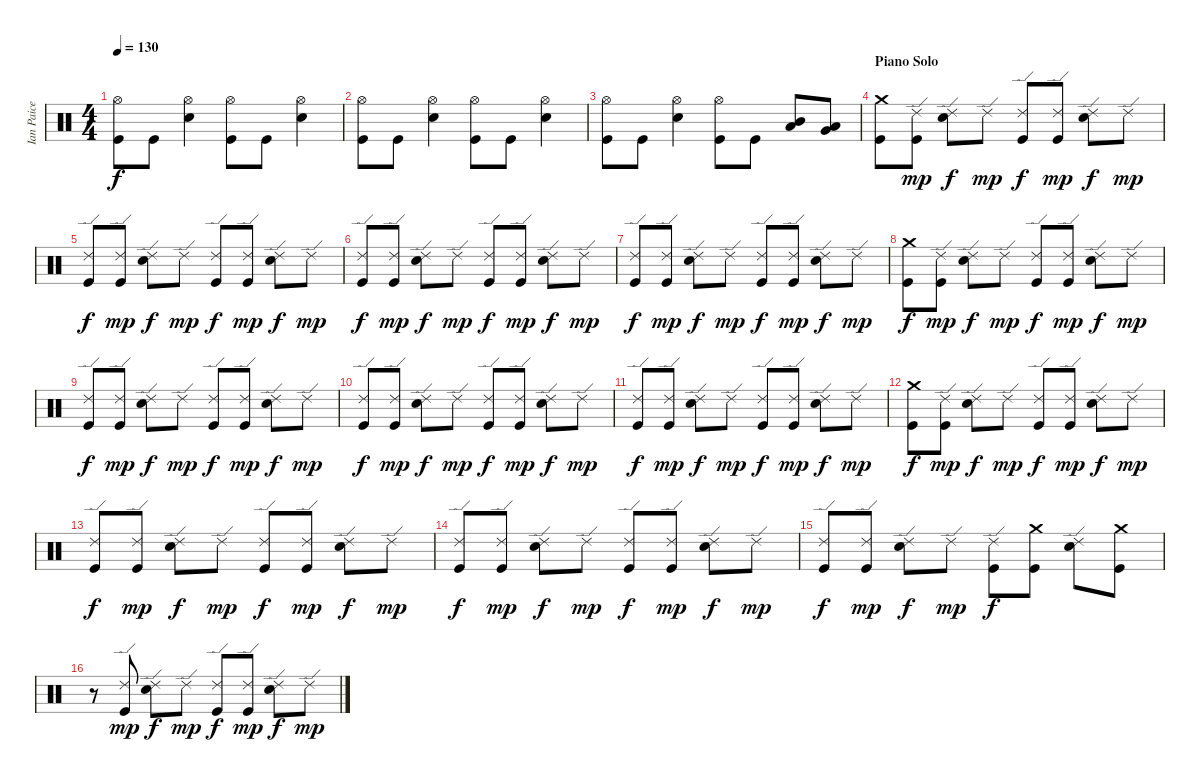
\track ("Ian Paice - Drums" "Ian Paice ") {instrument percussion}
\staff {score}
\articulation defaults
\ts (4 4)
\tempo 130
\clef neutral
\ks c
("Hi-Hat (open)" "Kick (hit)").8{dy f} "Kick (hit)".8 ("Hi-Hat (open)" "Snare (hit) 2").4 ("Hi-Hat (open)" "Kick (hit)").8 "Kick (hit)".8 ("Hi-Hat (open)" "Snare (hit) 2").4 |
("Hi-Hat (open)" "Kick (hit)").8 "Kick (hit)".8 ("Hi-Hat (open)" "Snare (hit) 2").4 ("Hi-Hat (open)" "Kick (hit)").8 "Kick (hit)".8 ("Hi-Hat (open)" "Snare (hit) 2").4 |
("Hi-Hat (open)" "Kick (hit)").8 "Kick (hit)".8 ("Hi-Hat (open)" "Snare (hit) 2").4 ("Hi-Hat (open)" "Kick (hit)").8 "Kick (hit)".8 ("Mid Tom (hit)" "Low Tom (hit)").8 ("Low Tom (hit)" "Very Low Tom (hit)").8 |
\section ("" "Piano Solo")
("Crash medium (hit)" "Kick (hit)").8 ("Ride (edge) 2" "Kick (hit)").8{dy mp} ("Ride (edge) 2" "Snare (hit) 2").8{dy f} "Ride (edge) 2".8{dy mp} ("Ride (edge) 2" "Kick (hit)").8{dy f} ("Ride (edge) 2" "Kick (hit)").8{dy mp} ("Ride (edge) 2" "Snare (hit) 2").8{dy f} "Ride (edge) 2".8{dy mp} |
("Ride (edge) 2" "Kick (hit)").8{dy f} ("Ride (edge) 2" "Kick (hit)").8{dy mp} ("Ride (edge) 2" "Snare (hit) 2").8{dy f} "Ride (edge) 2".8{dy mp} ("Ride (edge) 2" "Kick (hit)").8{dy f} ("Ride (edge) 2" "Kick (hit)").8{dy mp} ("Ride (edge) 2" "Snare (hit) 2").8{dy f} "Ride (edge) 2".8{dy mp} |
("Ride (edge) 2" "Kick (hit)").8{dy f} ("Ride (edge) 2" "Kick (hit)").8{dy mp} ("Ride (edge) 2" "Snare (hit) 2").8{dy f} "Ride (edge) 2".8{dy mp} ("Ride (edge) 2" "Kick (hit)").8{dy f} ("Ride (edge) 2" "Kick (hit)").8{dy mp} ("Ride (edge) 2" "Snare (hit) 2").8{dy f} "Ride (edge) 2".8{dy mp} |
("Ride (edge) 2" "Kick (hit)").8{dy f} ("Ride (edge) 2" "Kick (hit)").8{dy mp} ("Ride (edge) 2" "Snare (hit) 2").8{dy f} "Ride (edge) 2".8{dy mp} ("Ride (edge) 2" "Kick (hit)").8{dy f} ("Ride (edge) 2" "Kick (hit)").8{dy mp} ("Ride (edge) 2" "Snare (hit) 2").8{dy f} "Ride (edge) 2".8{dy mp} |
("Crash medium (hit)" "Kick (hit)").8{dy f} ("Ride (edge) 2" "Kick (hit)").8{dy mp} ("Ride (edge) 2" "Snare (hit) 2").8{dy f} "Ride (edge) 2".8{dy mp} ("Ride (edge) 2" "Kick (hit)").8{dy f} ("Ride (edge) 2" "Kick (hit)").8{dy mp} ("Ride (edge) 2" "Snare (hit) 2").8{dy f} "Ride (edge) 2".8{dy mp} |
("Ride (edge) 2" "Kick (hit)").8{dy f} ("Ride (edge) 2" "Kick (hit)").8{dy mp} ("Ride (edge) 2" "Snare (hit) 2").8{dy f} "Ride (edge) 2".8{dy mp} ("Ride (edge) 2" "Kick (hit)").8{dy f} ("Ride (edge) 2" "Kick (hit)").8{dy mp} ("Ride (edge) 2" "Snare (hit) 2").8{dy f} "Ride (edge) 2".8{dy mp} |
("Ride (edge) 2" "Kick (hit)").8{dy f} ("Ride (edge) 2" "Kick (hit)").8{dy mp} ("Ride (edge) 2" "Snare (hit) 2").8{dy f} "Ride (edge) 2".8{dy mp} ("Ride (edge) 2" "Kick (hit)").8{dy f} ("Ride (edge) 2" "Kick (hit)").8{dy mp} ("Ride (edge) 2" "Snare (hit) 2").8{dy f} "Ride (edge) 2".8{dy mp} |
("Ride (edge) 2" "Kick (hit)").8{dy f} ("Ride (edge) 2" "Kick (hit)").8{dy mp} ("Ride (edge) 2" "Snare (hit) 2").8{dy f} "Ride (edge) 2".8{dy mp} ("Ride (edge) 2" "Kick (hit)").8{dy f} ("Ride (edge) 2" "Kick (hit)").8{dy mp} ("Ride (edge) 2" "Snare (hit) 2").8{dy f} "Ride (edge) 2".8{dy mp} |
("Crash medium (hit)" "Kick (hit)").8{dy f} ("Ride (edge) 2" "Kick (hit)").8{dy mp} ("Ride (edge) 2" "Snare (hit) 2").8{dy f} "Ride (edge) 2".8{dy mp} ("Ride (edge) 2" "Kick (hit)").8{dy f} ("Ride (edge) 2" "Kick (hit)").8{dy mp} ("Ride (edge) 2" "Snare (hit) 2").8{dy f} "Ride (edge) 2".8{dy mp} |
("Ride (edge) 2" "Kick (hit)").8{dy f} ("Ride (edge) 2" "Kick (hit)").8{dy mp} ("Ride (edge) 2" "Snare (hit) 2").8{dy f} "Ride (edge) 2".8{dy mp} ("Ride (edge) 2" "Kick (hit)").8{dy f} ("Ride (edge) 2" "Kick (hit)").8{dy mp} ("Ride (edge) 2" "Snare (hit) 2").8{dy f} "Ride (edge) 2".8{dy mp} |
("Ride (edge) 2" "Kick (hit)").8{dy f} ("Ride (edge) 2" "Kick (hit)").8{dy mp} ("Ride (edge) 2" "Snare (hit) 2").8{dy f} "Ride (edge) 2".8{dy mp} ("Ride (edge) 2" "Kick (hit)").8{dy f} ("Ride (edge) 2" "Kick (hit)").8{dy mp} ("Ride (edge) 2" "Snare (hit) 2").8{dy f} "Ride (edge) 2".8{dy mp} |
("Ride (edge) 2" "Kick (hit)").8{dy f} ("Ride (edge) 2" "Kick (hit)").8{dy mp} ("Ride (edge) 2" "Snare (hit) 2").8{dy f} "Ride (edge) 2".8{dy mp} ("Ride (edge) 2" "Kick (hit)").8{dy f} ("Crash medium (hit)" "Kick (hit)").8 ("Ride (edge) 2" "Snare (hit) 2").8 ("Crash medium (hit)" "Kick (hit)").8 |
r.8 ("Ride (edge) 2" "Kick (hit)").8{dy mp} ("Ride (edge) 2" "Snare (hit) 2").8{dy f} "Ride (edge) 2".8{dy mp} ("Ride (edge) 2" "Kick (hit)").8{dy f} ("Ride (edge) 2" "Kick (hit)").8{dy mp} ("Ride (edge) 2" "Snare (hit) 2").8{dy f} "Ride (edge) 2".8{dy mp}
